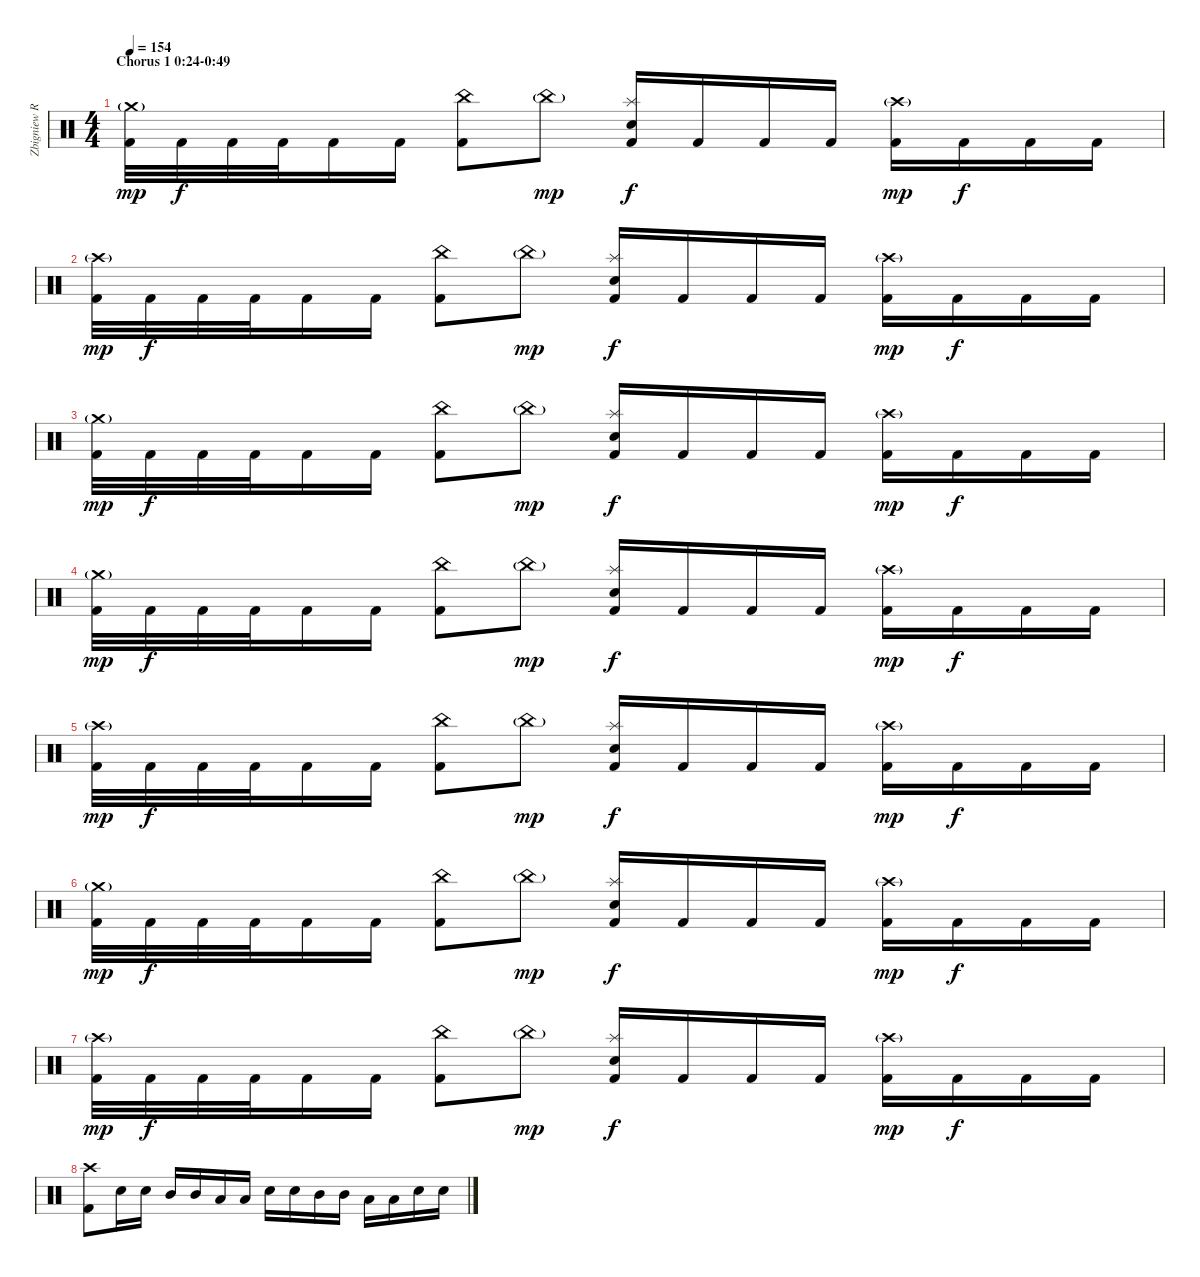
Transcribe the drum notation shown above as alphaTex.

\track ("Zbigniew Robert \"Inferno\" Prominski" "Zbigniew R") {instrument percussion}
\staff {score}
\articulation defaults
\ts (4 4)
\section ("" "Chorus 1 0:24-0:49")
\tempo 154
\clef neutral
\ks c
("Crash medium (hit)"{g} "Kick (hit) 2").32{dy mp} "Kick (hit) 2".32{dy f} "Kick (hit) 2".32 "Kick (hit) 2".32 "Kick (hit) 2".16 "Kick (hit) 2".16 ("China (hit)" "Kick (hit) 2").8 "China (hit)"{g}.8{dy mp} ("Splash (hit)" "Snare (hit) 2" "Kick (hit) 2").16{dy f} "Kick (hit) 2".16 "Kick (hit) 2".16 "Kick (hit) 2".16 ("Crash high (hit)"{g} "Kick (hit) 2").16{dy mp} "Kick (hit) 2".16{dy f} "Kick (hit) 2".16 "Kick (hit) 2".16 |
("Crash high (hit)"{g} "Kick (hit) 2").32{dy mp} "Kick (hit) 2".32{dy f} "Kick (hit) 2".32 "Kick (hit) 2".32 "Kick (hit) 2".16 "Kick (hit) 2".16 ("China (hit)" "Kick (hit) 2").8 "China (hit)"{g}.8{dy mp} ("Splash (hit)" "Snare (hit) 2" "Kick (hit) 2").16{dy f} "Kick (hit) 2".16 "Kick (hit) 2".16 "Kick (hit) 2".16 ("Crash high (hit)"{g} "Kick (hit) 2").16{dy mp} "Kick (hit) 2".16{dy f} "Kick (hit) 2".16 "Kick (hit) 2".16 |
("Crash medium (hit)"{g} "Kick (hit) 2").32{dy mp} "Kick (hit) 2".32{dy f} "Kick (hit) 2".32 "Kick (hit) 2".32 "Kick (hit) 2".16 "Kick (hit) 2".16 ("China (hit)" "Kick (hit) 2").8 "China (hit)"{g}.8{dy mp} ("Splash (hit)" "Snare (hit) 2" "Kick (hit) 2").16{dy f} "Kick (hit) 2".16 "Kick (hit) 2".16 "Kick (hit) 2".16 ("Crash high (hit)"{g} "Kick (hit) 2").16{dy mp} "Kick (hit) 2".16{dy f} "Kick (hit) 2".16 "Kick (hit) 2".16 |
("Crash medium (hit)"{g} "Kick (hit) 2").32{dy mp} "Kick (hit) 2".32{dy f} "Kick (hit) 2".32 "Kick (hit) 2".32 "Kick (hit) 2".16 "Kick (hit) 2".16 ("China (hit)" "Kick (hit) 2").8 "China (hit)"{g}.8{dy mp} ("Splash (hit)" "Snare (hit) 2" "Kick (hit) 2").16{dy f} "Kick (hit) 2".16 "Kick (hit) 2".16 "Kick (hit) 2".16 ("Crash high (hit)"{g} "Kick (hit) 2").16{dy mp} "Kick (hit) 2".16{dy f} "Kick (hit) 2".16 "Kick (hit) 2".16 |
("Crash high (hit)"{g} "Kick (hit) 2").32{dy mp} "Kick (hit) 2".32{dy f} "Kick (hit) 2".32 "Kick (hit) 2".32 "Kick (hit) 2".16 "Kick (hit) 2".16 ("China (hit)" "Kick (hit) 2").8 "China (hit)"{g}.8{dy mp} ("Splash (hit)" "Snare (hit) 2" "Kick (hit) 2").16{dy f} "Kick (hit) 2".16 "Kick (hit) 2".16 "Kick (hit) 2".16 ("Crash high (hit)"{g} "Kick (hit) 2").16{dy mp} "Kick (hit) 2".16{dy f} "Kick (hit) 2".16 "Kick (hit) 2".16 |
("Crash medium (hit)"{g} "Kick (hit) 2").32{dy mp} "Kick (hit) 2".32{dy f} "Kick (hit) 2".32 "Kick (hit) 2".32 "Kick (hit) 2".16 "Kick (hit) 2".16 ("China (hit)" "Kick (hit) 2").8 "China (hit)"{g}.8{dy mp} ("Splash (hit)" "Snare (hit) 2" "Kick (hit) 2").16{dy f} "Kick (hit) 2".16 "Kick (hit) 2".16 "Kick (hit) 2".16 ("Crash high (hit)"{g} "Kick (hit) 2").16{dy mp} "Kick (hit) 2".16{dy f} "Kick (hit) 2".16 "Kick (hit) 2".16 |
("Crash high (hit)"{g} "Kick (hit) 2").32{dy mp} "Kick (hit) 2".32{dy f} "Kick (hit) 2".32 "Kick (hit) 2".32 "Kick (hit) 2".16 "Kick (hit) 2".16 ("China (hit)" "Kick (hit) 2").8 "China (hit)"{g}.8{dy mp} ("Splash (hit)" "Snare (hit) 2" "Kick (hit) 2").16{dy f} "Kick (hit) 2".16 "Kick (hit) 2".16 "Kick (hit) 2".16 ("Crash high (hit)"{g} "Kick (hit) 2").16{dy mp} "Kick (hit) 2".16{dy f} "Kick (hit) 2".16 "Kick (hit) 2".16 |
("Crash high (hit)" "Kick (hit) 2").8 "Snare (hit) 2".16 "Snare (hit) 2".16 "Mid Tom (hit)".16 "Mid Tom (hit)".16 "Low Tom (hit)".16 "Low Tom (hit)".16 "Snare (hit) 2".16 "Snare (hit) 2".16 "Mid Tom (hit)".16 "Mid Tom (hit)".16 "Low Tom (hit)".16 "Low Tom (hit)".16 "Snare (hit) 2".16 "Snare (hit) 2".16
